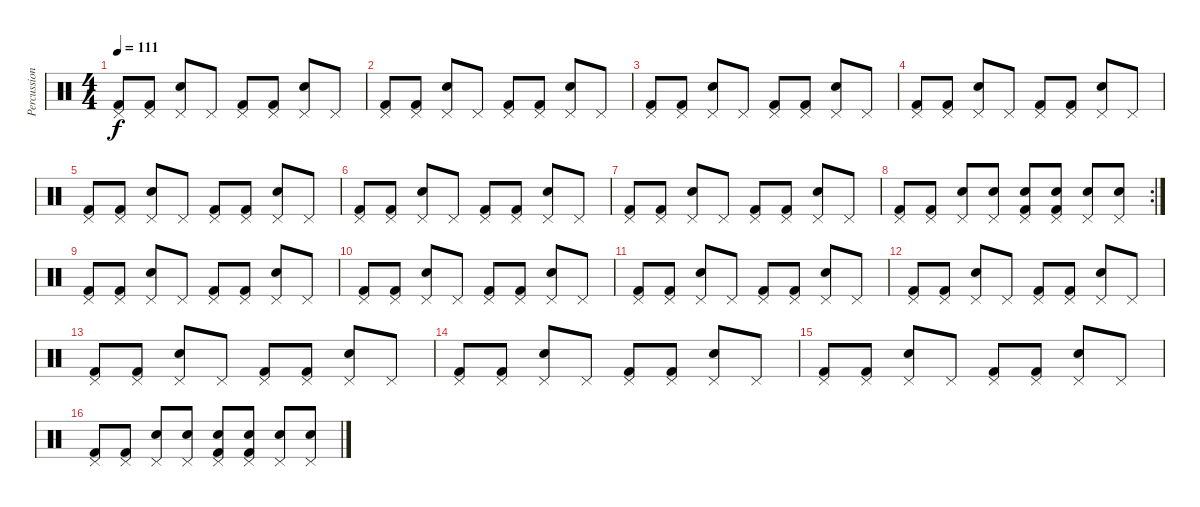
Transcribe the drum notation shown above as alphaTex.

\track ("Percussions" "Percussion") {instrument percussion}
\staff {score}
\articulation defaults
\ts (4 4)
\tempo 111
\clef neutral
\ks c
("Pedal Hi-Hat (hit)" "Kick (hit) 2").8{dy f} ("Pedal Hi-Hat (hit)" "Kick (hit) 2").8 ("Electric Snare (hit)" "Pedal Hi-Hat (hit)").8 "Pedal Hi-Hat (hit)".8 ("Pedal Hi-Hat (hit)" "Kick (hit) 2").8 ("Pedal Hi-Hat (hit)" "Kick (hit) 2").8 ("Electric Snare (hit)" "Pedal Hi-Hat (hit)").8 "Pedal Hi-Hat (hit)".8 |
("Pedal Hi-Hat (hit)" "Kick (hit) 2").8 ("Pedal Hi-Hat (hit)" "Kick (hit) 2").8 ("Electric Snare (hit)" "Pedal Hi-Hat (hit)").8 "Pedal Hi-Hat (hit)".8 ("Pedal Hi-Hat (hit)" "Kick (hit) 2").8 ("Pedal Hi-Hat (hit)" "Kick (hit) 2").8 ("Electric Snare (hit)" "Pedal Hi-Hat (hit)").8 "Pedal Hi-Hat (hit)".8 |
("Pedal Hi-Hat (hit)" "Kick (hit) 2").8 ("Pedal Hi-Hat (hit)" "Kick (hit) 2").8 ("Electric Snare (hit)" "Pedal Hi-Hat (hit)").8 "Pedal Hi-Hat (hit)".8 ("Pedal Hi-Hat (hit)" "Kick (hit) 2").8 ("Pedal Hi-Hat (hit)" "Kick (hit) 2").8 ("Electric Snare (hit)" "Pedal Hi-Hat (hit)").8 "Pedal Hi-Hat (hit)".8 |
("Pedal Hi-Hat (hit)" "Kick (hit) 2").8 ("Pedal Hi-Hat (hit)" "Kick (hit) 2").8 ("Electric Snare (hit)" "Pedal Hi-Hat (hit)").8 "Pedal Hi-Hat (hit)".8 ("Pedal Hi-Hat (hit)" "Kick (hit) 2").8 ("Pedal Hi-Hat (hit)" "Kick (hit) 2").8 ("Electric Snare (hit)" "Pedal Hi-Hat (hit)").8 "Pedal Hi-Hat (hit)".8 |
("Pedal Hi-Hat (hit)" "Kick (hit) 2").8 ("Pedal Hi-Hat (hit)" "Kick (hit) 2").8 ("Electric Snare (hit)" "Pedal Hi-Hat (hit)").8 "Pedal Hi-Hat (hit)".8 ("Pedal Hi-Hat (hit)" "Kick (hit) 2").8 ("Pedal Hi-Hat (hit)" "Kick (hit) 2").8 ("Electric Snare (hit)" "Pedal Hi-Hat (hit)").8 "Pedal Hi-Hat (hit)".8 |
("Pedal Hi-Hat (hit)" "Kick (hit) 2").8 ("Pedal Hi-Hat (hit)" "Kick (hit) 2").8 ("Electric Snare (hit)" "Pedal Hi-Hat (hit)").8 "Pedal Hi-Hat (hit)".8 ("Pedal Hi-Hat (hit)" "Kick (hit) 2").8 ("Pedal Hi-Hat (hit)" "Kick (hit) 2").8 ("Electric Snare (hit)" "Pedal Hi-Hat (hit)").8 "Pedal Hi-Hat (hit)".8 |
("Pedal Hi-Hat (hit)" "Kick (hit) 2").8 ("Pedal Hi-Hat (hit)" "Kick (hit) 2").8 ("Electric Snare (hit)" "Pedal Hi-Hat (hit)").8 "Pedal Hi-Hat (hit)".8 ("Pedal Hi-Hat (hit)" "Kick (hit) 2").8 ("Pedal Hi-Hat (hit)" "Kick (hit) 2").8 ("Electric Snare (hit)" "Pedal Hi-Hat (hit)").8 "Pedal Hi-Hat (hit)".8 |
\rc 2
("Pedal Hi-Hat (hit)" "Kick (hit) 2").8 ("Pedal Hi-Hat (hit)" "Kick (hit) 2").8 ("Electric Snare (hit)" "Pedal Hi-Hat (hit)").8 ("Electric Snare (hit)" "Pedal Hi-Hat (hit)").8 ("Electric Snare (hit)" "Pedal Hi-Hat (hit)" "Kick (hit) 2").8 ("Electric Snare (hit)" "Pedal Hi-Hat (hit)" "Kick (hit) 2").8 ("Electric Snare (hit)" "Pedal Hi-Hat (hit)").8 ("Electric Snare (hit)" "Pedal Hi-Hat (hit)").8 |
("Pedal Hi-Hat (hit)" "Kick (hit) 2").8 ("Pedal Hi-Hat (hit)" "Kick (hit) 2").8 ("Electric Snare (hit)" "Pedal Hi-Hat (hit)").8 "Pedal Hi-Hat (hit)".8 ("Pedal Hi-Hat (hit)" "Kick (hit) 2").8 ("Pedal Hi-Hat (hit)" "Kick (hit) 2").8 ("Electric Snare (hit)" "Pedal Hi-Hat (hit)").8 "Pedal Hi-Hat (hit)".8 |
("Pedal Hi-Hat (hit)" "Kick (hit) 2").8 ("Pedal Hi-Hat (hit)" "Kick (hit) 2").8 ("Electric Snare (hit)" "Pedal Hi-Hat (hit)").8 "Pedal Hi-Hat (hit)".8 ("Pedal Hi-Hat (hit)" "Kick (hit) 2").8 ("Pedal Hi-Hat (hit)" "Kick (hit) 2").8 ("Electric Snare (hit)" "Pedal Hi-Hat (hit)").8 "Pedal Hi-Hat (hit)".8 |
("Pedal Hi-Hat (hit)" "Kick (hit) 2").8 ("Pedal Hi-Hat (hit)" "Kick (hit) 2").8 ("Electric Snare (hit)" "Pedal Hi-Hat (hit)").8 "Pedal Hi-Hat (hit)".8 ("Pedal Hi-Hat (hit)" "Kick (hit) 2").8 ("Pedal Hi-Hat (hit)" "Kick (hit) 2").8 ("Electric Snare (hit)" "Pedal Hi-Hat (hit)").8 "Pedal Hi-Hat (hit)".8 |
("Pedal Hi-Hat (hit)" "Kick (hit) 2").8 ("Pedal Hi-Hat (hit)" "Kick (hit) 2").8 ("Electric Snare (hit)" "Pedal Hi-Hat (hit)").8 "Pedal Hi-Hat (hit)".8 ("Pedal Hi-Hat (hit)" "Kick (hit) 2").8 ("Pedal Hi-Hat (hit)" "Kick (hit) 2").8 ("Electric Snare (hit)" "Pedal Hi-Hat (hit)").8 "Pedal Hi-Hat (hit)".8 |
("Pedal Hi-Hat (hit)" "Kick (hit) 2").8 ("Pedal Hi-Hat (hit)" "Kick (hit) 2").8 ("Electric Snare (hit)" "Pedal Hi-Hat (hit)").8 "Pedal Hi-Hat (hit)".8 ("Pedal Hi-Hat (hit)" "Kick (hit) 2").8 ("Pedal Hi-Hat (hit)" "Kick (hit) 2").8 ("Electric Snare (hit)" "Pedal Hi-Hat (hit)").8 "Pedal Hi-Hat (hit)".8 |
("Pedal Hi-Hat (hit)" "Kick (hit) 2").8 ("Pedal Hi-Hat (hit)" "Kick (hit) 2").8 ("Electric Snare (hit)" "Pedal Hi-Hat (hit)").8 "Pedal Hi-Hat (hit)".8 ("Pedal Hi-Hat (hit)" "Kick (hit) 2").8 ("Pedal Hi-Hat (hit)" "Kick (hit) 2").8 ("Electric Snare (hit)" "Pedal Hi-Hat (hit)").8 "Pedal Hi-Hat (hit)".8 |
("Pedal Hi-Hat (hit)" "Kick (hit) 2").8 ("Pedal Hi-Hat (hit)" "Kick (hit) 2").8 ("Electric Snare (hit)" "Pedal Hi-Hat (hit)").8 "Pedal Hi-Hat (hit)".8 ("Pedal Hi-Hat (hit)" "Kick (hit) 2").8 ("Pedal Hi-Hat (hit)" "Kick (hit) 2").8 ("Electric Snare (hit)" "Pedal Hi-Hat (hit)").8 "Pedal Hi-Hat (hit)".8 |
("Pedal Hi-Hat (hit)" "Kick (hit) 2").8 ("Pedal Hi-Hat (hit)" "Kick (hit) 2").8 ("Electric Snare (hit)" "Pedal Hi-Hat (hit)").8 ("Electric Snare (hit)" "Pedal Hi-Hat (hit)").8 ("Electric Snare (hit)" "Pedal Hi-Hat (hit)" "Kick (hit) 2").8 ("Electric Snare (hit)" "Pedal Hi-Hat (hit)" "Kick (hit) 2").8 ("Electric Snare (hit)" "Pedal Hi-Hat (hit)").8 ("Electric Snare (hit)" "Pedal Hi-Hat (hit)").8
